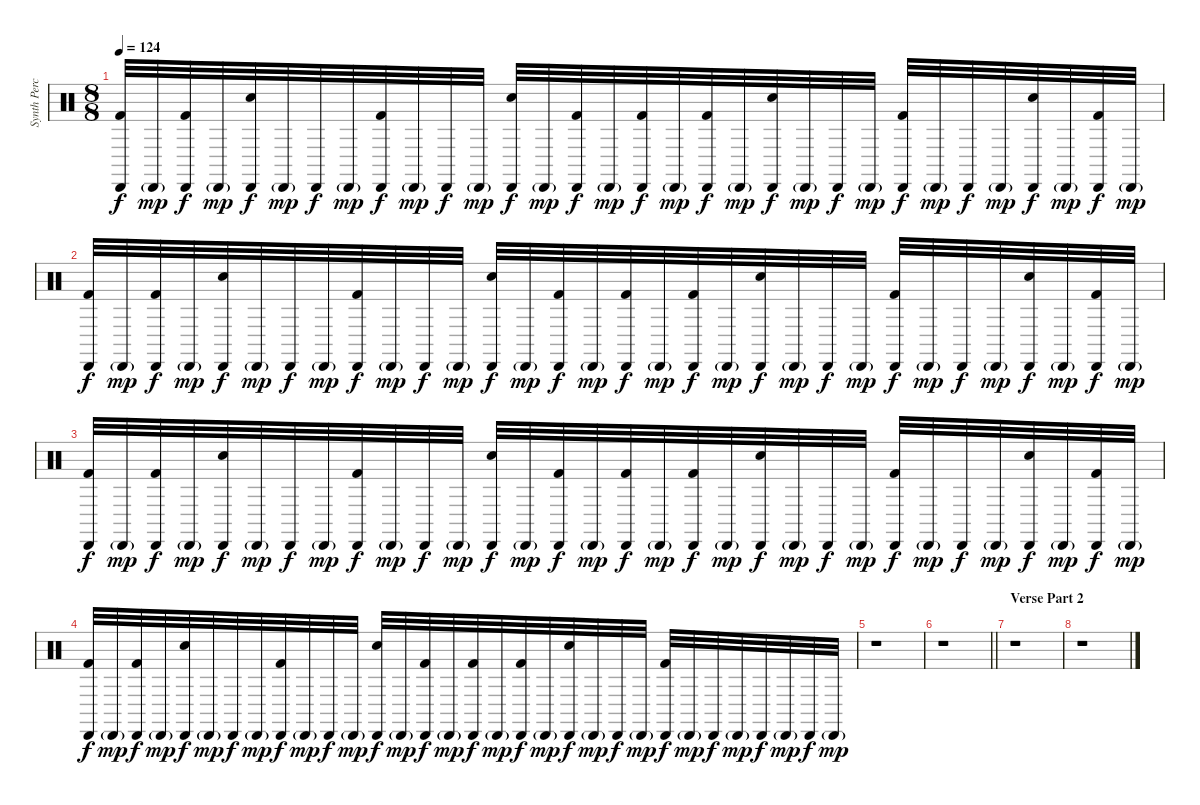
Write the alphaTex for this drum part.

\track ("Synth Percussion" "Synth Perc") {instrument percussion}
\staff {score}
\articulation defaults
\ts (8 8)
\tempo 124
\clef neutral
\ks c
("Cabasa (hit)" "Kick (hit) 2").32{dy f} "Cabasa (hit)"{g}.32{dy mp} ("Cabasa (hit)" "Kick (hit) 2").32{dy f} "Cabasa (hit)"{g}.32{dy mp} ("Cabasa (hit)" "Snare (hit) 2").32{dy f} "Cabasa (hit)"{g}.32{dy mp} "Cabasa (hit)".32{dy f} "Cabasa (hit)"{g}.32{dy mp} ("Cabasa (hit)" "Kick (hit) 2").32{dy f} "Cabasa (hit)"{g}.32{dy mp} "Cabasa (hit)".32{dy f} "Cabasa (hit)"{g}.32{dy mp} ("Cabasa (hit)" "Snare (hit) 2").32{dy f} "Cabasa (hit)"{g}.32{dy mp} ("Cabasa (hit)" "Kick (hit) 2").32{dy f} "Cabasa (hit)"{g}.32{dy mp} ("Cabasa (hit)" "Kick (hit) 2").32{dy f} "Cabasa (hit)"{g}.32{dy mp} ("Cabasa (hit)" "Kick (hit) 2").32{dy f} "Cabasa (hit)"{g}.32{dy mp} ("Cabasa (hit)" "Snare (hit) 2").32{dy f} "Cabasa (hit)"{g}.32{dy mp} "Cabasa (hit)".32{dy f} "Cabasa (hit)"{g}.32{dy mp} ("Cabasa (hit)" "Kick (hit) 2").32{dy f} "Cabasa (hit)"{g}.32{dy mp} "Cabasa (hit)".32{dy f} "Cabasa (hit)"{g}.32{dy mp} ("Cabasa (hit)" "Snare (hit) 2").32{dy f} "Cabasa (hit)"{g}.32{dy mp} ("Cabasa (hit)" "Kick (hit) 2").32{dy f} "Cabasa (hit)"{g}.32{dy mp} |
("Cabasa (hit)" "Kick (hit) 2").32{dy f} "Cabasa (hit)"{g}.32{dy mp} ("Cabasa (hit)" "Kick (hit) 2").32{dy f} "Cabasa (hit)"{g}.32{dy mp} ("Cabasa (hit)" "Snare (hit) 2").32{dy f} "Cabasa (hit)"{g}.32{dy mp} "Cabasa (hit)".32{dy f} "Cabasa (hit)"{g}.32{dy mp} ("Cabasa (hit)" "Kick (hit) 2").32{dy f} "Cabasa (hit)"{g}.32{dy mp} "Cabasa (hit)".32{dy f} "Cabasa (hit)"{g}.32{dy mp} ("Cabasa (hit)" "Snare (hit) 2").32{dy f} "Cabasa (hit)"{g}.32{dy mp} ("Cabasa (hit)" "Kick (hit) 2").32{dy f} "Cabasa (hit)"{g}.32{dy mp} ("Cabasa (hit)" "Kick (hit) 2").32{dy f} "Cabasa (hit)"{g}.32{dy mp} ("Cabasa (hit)" "Kick (hit) 2").32{dy f} "Cabasa (hit)"{g}.32{dy mp} ("Cabasa (hit)" "Snare (hit) 2").32{dy f} "Cabasa (hit)"{g}.32{dy mp} "Cabasa (hit)".32{dy f} "Cabasa (hit)"{g}.32{dy mp} ("Cabasa (hit)" "Kick (hit) 2").32{dy f} "Cabasa (hit)"{g}.32{dy mp} "Cabasa (hit)".32{dy f} "Cabasa (hit)"{g}.32{dy mp} ("Cabasa (hit)" "Snare (hit) 2").32{dy f} "Cabasa (hit)"{g}.32{dy mp} ("Cabasa (hit)" "Kick (hit) 2").32{dy f} "Cabasa (hit)"{g}.32{dy mp} |
("Cabasa (hit)" "Kick (hit) 2").32{dy f} "Cabasa (hit)"{g}.32{dy mp} ("Cabasa (hit)" "Kick (hit) 2").32{dy f} "Cabasa (hit)"{g}.32{dy mp} ("Cabasa (hit)" "Snare (hit) 2").32{dy f} "Cabasa (hit)"{g}.32{dy mp} "Cabasa (hit)".32{dy f} "Cabasa (hit)"{g}.32{dy mp} ("Cabasa (hit)" "Kick (hit) 2").32{dy f} "Cabasa (hit)"{g}.32{dy mp} "Cabasa (hit)".32{dy f} "Cabasa (hit)"{g}.32{dy mp} ("Cabasa (hit)" "Snare (hit) 2").32{dy f} "Cabasa (hit)"{g}.32{dy mp} ("Cabasa (hit)" "Kick (hit) 2").32{dy f} "Cabasa (hit)"{g}.32{dy mp} ("Cabasa (hit)" "Kick (hit) 2").32{dy f} "Cabasa (hit)"{g}.32{dy mp} ("Cabasa (hit)" "Kick (hit) 2").32{dy f} "Cabasa (hit)"{g}.32{dy mp} ("Cabasa (hit)" "Snare (hit) 2").32{dy f} "Cabasa (hit)"{g}.32{dy mp} "Cabasa (hit)".32{dy f} "Cabasa (hit)"{g}.32{dy mp} ("Cabasa (hit)" "Kick (hit) 2").32{dy f} "Cabasa (hit)"{g}.32{dy mp} "Cabasa (hit)".32{dy f} "Cabasa (hit)"{g}.32{dy mp} ("Cabasa (hit)" "Snare (hit) 2").32{dy f} "Cabasa (hit)"{g}.32{dy mp} ("Cabasa (hit)" "Kick (hit) 2").32{dy f} "Cabasa (hit)"{g}.32{dy mp} |
("Cabasa (hit)" "Kick (hit) 2").32{dy f} "Cabasa (hit)"{g}.32{dy mp} ("Cabasa (hit)" "Kick (hit) 2").32{dy f} "Cabasa (hit)"{g}.32{dy mp} ("Cabasa (hit)" "Snare (hit) 2").32{dy f} "Cabasa (hit)"{g}.32{dy mp} "Cabasa (hit)".32{dy f} "Cabasa (hit)"{g}.32{dy mp} ("Cabasa (hit)" "Kick (hit) 2").32{dy f} "Cabasa (hit)"{g}.32{dy mp} "Cabasa (hit)".32{dy f} "Cabasa (hit)"{g}.32{dy mp} ("Cabasa (hit)" "Snare (hit) 2").32{dy f} "Cabasa (hit)"{g}.32{dy mp} ("Cabasa (hit)" "Kick (hit) 2").32{dy f} "Cabasa (hit)"{g}.32{dy mp} ("Cabasa (hit)" "Kick (hit) 2").32{dy f} "Cabasa (hit)"{g}.32{dy mp} ("Cabasa (hit)" "Kick (hit) 2").32{dy f} "Cabasa (hit)"{g}.32{dy mp} ("Cabasa (hit)" "Snare (hit) 2").32{dy f} "Cabasa (hit)"{g}.32{dy mp} "Cabasa (hit)".32{dy f} "Cabasa (hit)"{g}.32{dy mp} ("Cabasa (hit)" "Kick (hit) 2").32{dy f} "Cabasa (hit)"{g}.32{dy mp} "Cabasa (hit)".32{dy f} "Cabasa (hit)"{g}.32{dy mp} "Cabasa (hit)".32{dy f} "Cabasa (hit)"{g}.32{dy mp} "Cabasa (hit)".32{dy f} "Cabasa (hit)"{g}.32{dy mp} |
r.1 |
\barLineRight lightlight
r.1 |
\section ("" "Verse Part 2")
r.1 |
r.1
